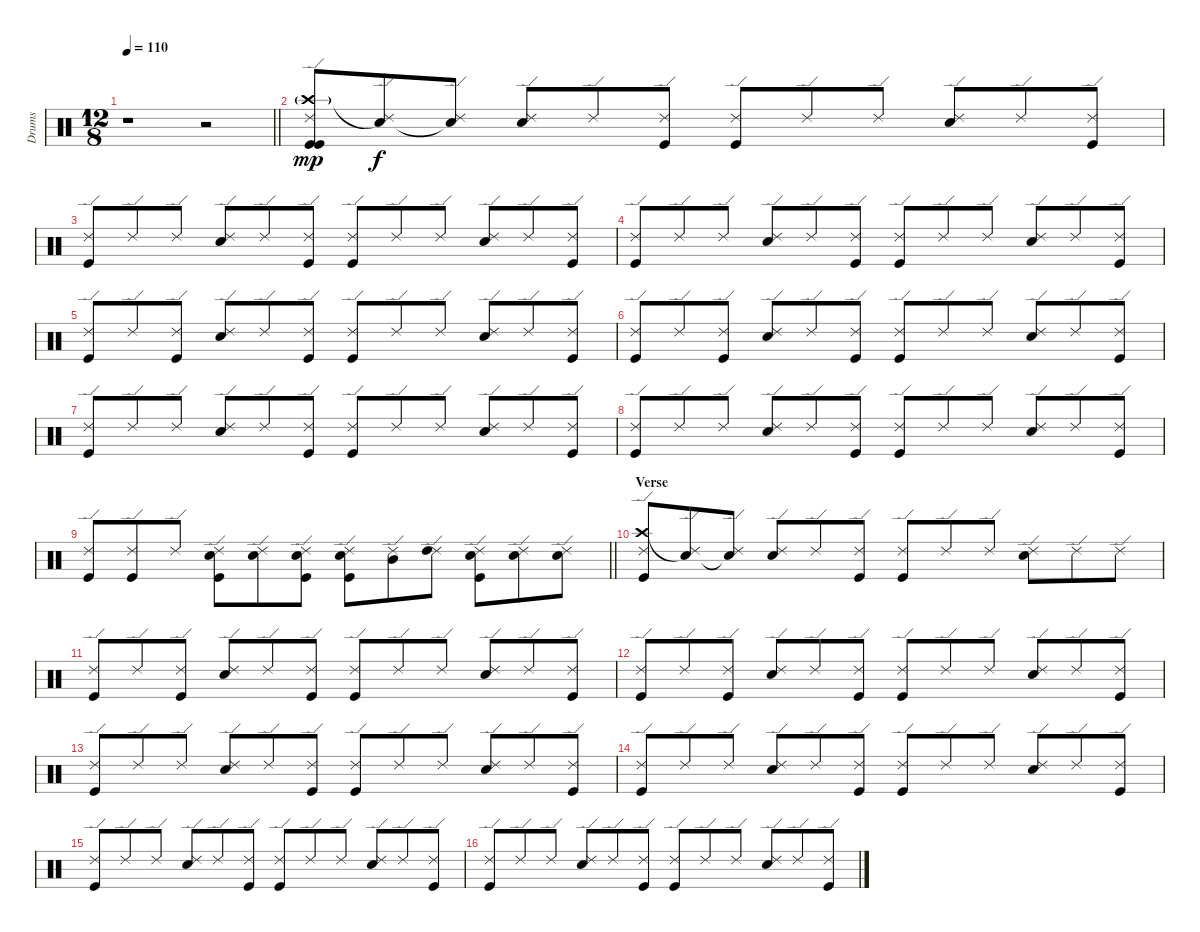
\track ("Drums" "Drums") {instrument percussion}
\staff {score}
\articulation defaults
\ts (12 8)
\tempo 110
\clef neutral
\barLineRight lightlight
\ks c
r.1{dy mp} r.2 |
("Ride (edge) 2" "Crash high (hit)"{g} "Kick (hit)" "Kick (hit)").8 ("Ride (edge) 2" "Snare (hit)"{t}).8{dy f} ("Ride (edge) 2" "Snare (hit)"{t}).8 ("Ride (edge) 2" "Snare (hit) 2").8 "Ride (edge) 2".8 ("Ride (edge) 2" "Kick (hit)").8 ("Ride (edge) 2" "Kick (hit)").8 "Ride (edge) 2".8 "Ride (edge) 2".8 ("Ride (edge) 2" "Snare (hit) 2").8 "Ride (edge) 2".8 ("Ride (edge) 2" "Kick (hit)").8 |
("Ride (edge) 2" "Kick (hit)").8 "Ride (edge) 2".8 "Ride (edge) 2".8 ("Ride (edge) 2" "Snare (hit) 2").8 "Ride (edge) 2".8 ("Ride (edge) 2" "Kick (hit)").8 ("Ride (edge) 2" "Kick (hit)").8 "Ride (edge) 2".8 "Ride (edge) 2".8 ("Ride (edge) 2" "Snare (hit) 2").8 "Ride (edge) 2".8 ("Ride (edge) 2" "Kick (hit)").8 |
("Ride (edge) 2" "Kick (hit)").8 "Ride (edge) 2".8 "Ride (edge) 2".8 ("Ride (edge) 2" "Snare (hit) 2").8 "Ride (edge) 2".8 ("Ride (edge) 2" "Kick (hit)").8 ("Ride (edge) 2" "Kick (hit)").8 "Ride (edge) 2".8 "Ride (edge) 2".8 ("Ride (edge) 2" "Snare (hit) 2").8 "Ride (edge) 2".8 ("Ride (edge) 2" "Kick (hit)").8 |
("Ride (edge) 2" "Kick (hit)").8 "Ride (edge) 2".8 ("Ride (edge) 2" "Kick (hit)").8 ("Ride (edge) 2" "Snare (hit) 2").8 "Ride (edge) 2".8 ("Ride (edge) 2" "Kick (hit)").8 ("Ride (edge) 2" "Kick (hit)").8 "Ride (edge) 2".8 "Ride (edge) 2".8 ("Ride (edge) 2" "Snare (hit) 2").8 "Ride (edge) 2".8 ("Ride (edge) 2" "Kick (hit)").8 |
("Ride (edge) 2" "Kick (hit)").8 "Ride (edge) 2".8 ("Ride (edge) 2" "Kick (hit)").8 ("Ride (edge) 2" "Snare (hit) 2").8 "Ride (edge) 2".8 ("Ride (edge) 2" "Kick (hit)").8 ("Ride (edge) 2" "Kick (hit)").8 "Ride (edge) 2".8 "Ride (edge) 2".8 ("Ride (edge) 2" "Snare (hit) 2").8 "Ride (edge) 2".8 ("Ride (edge) 2" "Kick (hit)").8 |
("Ride (edge) 2" "Kick (hit)").8 "Ride (edge) 2".8 "Ride (edge) 2".8 ("Ride (edge) 2" "Snare (hit) 2").8 "Ride (edge) 2".8 ("Ride (edge) 2" "Kick (hit)").8 ("Ride (edge) 2" "Kick (hit)").8 "Ride (edge) 2".8 "Ride (edge) 2".8 ("Ride (edge) 2" "Snare (hit) 2").8 "Ride (edge) 2".8 ("Ride (edge) 2" "Kick (hit)").8 |
("Ride (edge) 2" "Kick (hit)").8 "Ride (edge) 2".8 "Ride (edge) 2".8 ("Ride (edge) 2" "Snare (hit) 2").8 "Ride (edge) 2".8 ("Ride (edge) 2" "Kick (hit)").8 ("Ride (edge) 2" "Kick (hit)").8 "Ride (edge) 2".8 "Ride (edge) 2".8 ("Ride (edge) 2" "Snare (hit) 2").8 "Ride (edge) 2".8 ("Ride (edge) 2" "Kick (hit)").8 |
\barLineRight lightlight
("Ride (edge) 2" "Kick (hit)").8 ("Ride (edge) 2" "Kick (hit)").8 "Ride (edge) 2".8 ("Ride (edge) 2" "Snare (hit) 2" "Kick (hit)").8 ("Ride (edge) 2" "Snare (hit) 2").8 ("Ride (edge) 2" "Snare (hit) 2" "Kick (hit)").8 ("Ride (edge) 2" "Snare (hit) 2" "Kick (hit)").8 ("Ride (edge) 2" "Mid Tom (hit)").8 ("Ride (edge) 2" "High Tom (hit)").8 ("Ride (edge) 2" "Snare (hit) 2" "Kick (hit)").8 ("Ride (edge) 2" "Snare (hit) 2").8 ("Ride (edge) 2" "Snare (hit) 2").8 |
\section ("" "Verse")
("Ride (edge) 2" "Crash high (hit)" "Kick (hit)").8 ("Ride (edge) 2" "Snare (hit)"{t}).8 ("Ride (edge) 2" "Snare (hit)"{t}).8 ("Ride (edge) 2" "Snare (hit) 2").8 "Ride (edge) 2".8 ("Ride (edge) 2" "Kick (hit)").8 ("Ride (edge) 2" "Kick (hit)").8 "Ride (edge) 2".8 "Ride (edge) 2".8 ("Ride (edge) 2" "Snare (hit) 2").8 "Ride (edge) 2".8 "Ride (edge) 2".8 |
("Ride (edge) 2" "Kick (hit)").8 "Ride (edge) 2".8 ("Ride (edge) 2" "Kick (hit)").8 ("Ride (edge) 2" "Snare (hit) 2").8 "Ride (edge) 2".8 ("Ride (edge) 2" "Kick (hit)").8 ("Ride (edge) 2" "Kick (hit)").8 "Ride (edge) 2".8 "Ride (edge) 2".8 ("Ride (edge) 2" "Snare (hit) 2").8 "Ride (edge) 2".8 ("Ride (edge) 2" "Kick (hit)").8 |
("Ride (edge) 2" "Kick (hit)").8 "Ride (edge) 2".8 ("Ride (edge) 2" "Kick (hit)").8 ("Ride (edge) 2" "Snare (hit) 2").8 "Ride (edge) 2".8 ("Ride (edge) 2" "Kick (hit)").8 ("Ride (edge) 2" "Kick (hit)").8 "Ride (edge) 2".8 "Ride (edge) 2".8 ("Ride (edge) 2" "Snare (hit) 2").8 "Ride (edge) 2".8 ("Ride (edge) 2" "Kick (hit)").8 |
("Ride (edge) 2" "Kick (hit)").8 "Ride (edge) 2".8 "Ride (edge) 2".8 ("Ride (edge) 2" "Snare (hit) 2").8 "Ride (edge) 2".8 ("Ride (edge) 2" "Kick (hit)").8 ("Ride (edge) 2" "Kick (hit)").8 "Ride (edge) 2".8 "Ride (edge) 2".8 ("Ride (edge) 2" "Snare (hit) 2").8 "Ride (edge) 2".8 ("Ride (edge) 2" "Kick (hit)").8 |
("Ride (edge) 2" "Kick (hit)").8 "Ride (edge) 2".8 "Ride (edge) 2".8 ("Ride (edge) 2" "Snare (hit) 2").8 "Ride (edge) 2".8 ("Ride (edge) 2" "Kick (hit)").8 ("Ride (edge) 2" "Kick (hit)").8 "Ride (edge) 2".8 "Ride (edge) 2".8 ("Ride (edge) 2" "Snare (hit) 2").8 "Ride (edge) 2".8 ("Ride (edge) 2" "Kick (hit)").8 |
("Ride (edge) 2" "Kick (hit)").8 "Ride (edge) 2".8 "Ride (edge) 2".8 ("Ride (edge) 2" "Snare (hit) 2").8 "Ride (edge) 2".8 ("Ride (edge) 2" "Kick (hit)").8 ("Ride (edge) 2" "Kick (hit)").8 "Ride (edge) 2".8 "Ride (edge) 2".8 ("Ride (edge) 2" "Snare (hit) 2").8 "Ride (edge) 2".8 ("Ride (edge) 2" "Kick (hit)").8 |
("Ride (edge) 2" "Kick (hit)").8 "Ride (edge) 2".8 "Ride (edge) 2".8 ("Ride (edge) 2" "Snare (hit) 2").8 "Ride (edge) 2".8 ("Ride (edge) 2" "Kick (hit)").8 ("Ride (edge) 2" "Kick (hit)").8 "Ride (edge) 2".8 "Ride (edge) 2".8 ("Ride (edge) 2" "Snare (hit) 2").8 "Ride (edge) 2".8 ("Ride (edge) 2" "Kick (hit)").8
